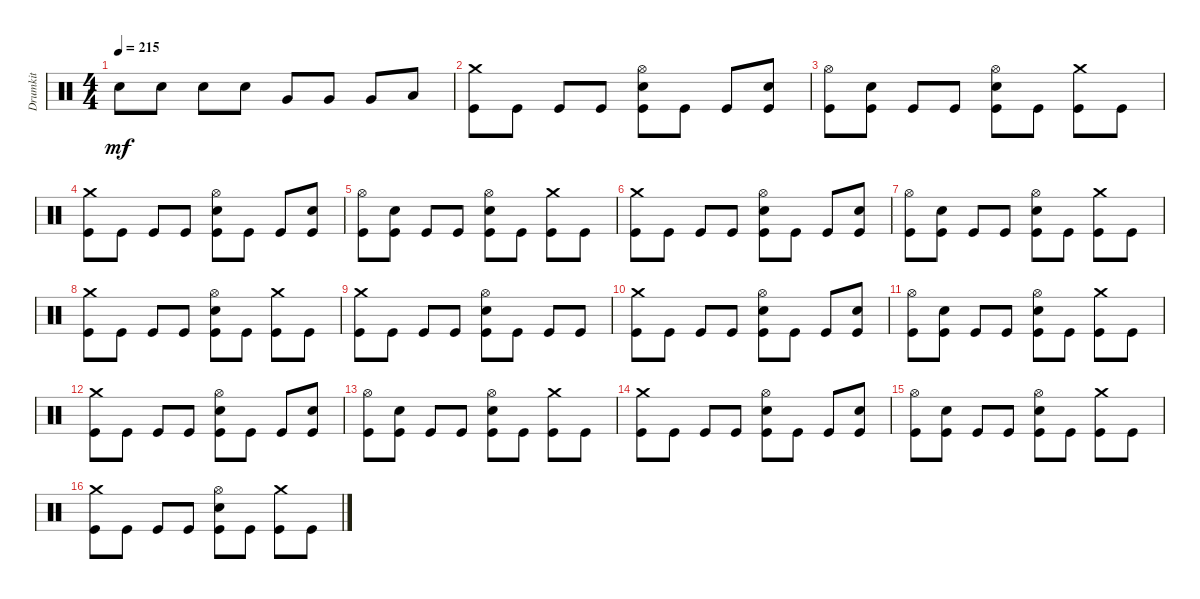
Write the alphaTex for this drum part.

\track ("Drumkit" "Drumkit") {instrument percussion}
\staff {score}
\articulation defaults
\ts (4 4)
\tempo 215
\clef neutral
\ks c "Snare (hit) 2".8{dy mf} "Snare (hit) 2".8 "Snare (hit) 2".8 "Snare (hit) 2".8 "Very Low Tom (hit)".8 "Very Low Tom (hit)".8 "Very Low Tom (hit)".8 "Low Tom (hit)".8
|
("Kick (hit)" "Crash medium (hit)").8 "Kick (hit)".8 "Kick (hit)".8 "Kick (hit)".8 ("Kick (hit)" "Snare (hit) 2" "Hi-Hat (open)").8 "Kick (hit)".8 "Kick (hit)".8 ("Kick (hit)" "Snare (hit) 2").8 |
("Kick (hit)" "Hi-Hat (open)").8 ("Kick (hit)" "Snare (hit) 2").8 "Kick (hit)".8 "Kick (hit)".8 ("Kick (hit)" "Snare (hit) 2" "Hi-Hat (open)").8 "Kick (hit)".8 ("Kick (hit)" "Crash medium (hit)").8 "Kick (hit)".8 |
("Kick (hit)" "Crash medium (hit)").8 "Kick (hit)".8 "Kick (hit)".8 "Kick (hit)".8 ("Kick (hit)" "Snare (hit) 2" "Hi-Hat (open)").8 "Kick (hit)".8 "Kick (hit)".8 ("Kick (hit)" "Snare (hit) 2").8 |
("Kick (hit)" "Hi-Hat (open)").8 ("Kick (hit)" "Snare (hit) 2").8 "Kick (hit)".8 "Kick (hit)".8 ("Kick (hit)" "Snare (hit) 2" "Hi-Hat (open)").8 "Kick (hit)".8 ("Kick (hit)" "Crash medium (hit)").8 "Kick (hit)".8 |
("Kick (hit)" "Crash medium (hit)").8 "Kick (hit)".8 "Kick (hit)".8 "Kick (hit)".8 ("Kick (hit)" "Snare (hit) 2" "Hi-Hat (open)").8 "Kick (hit)".8 "Kick (hit)".8 ("Kick (hit)" "Snare (hit) 2").8 |
("Kick (hit)" "Hi-Hat (open)").8 ("Kick (hit)" "Snare (hit) 2").8 "Kick (hit)".8 "Kick (hit)".8 ("Kick (hit)" "Snare (hit) 2" "Hi-Hat (open)").8 "Kick (hit)".8 ("Kick (hit)" "Crash medium (hit)").8 "Kick (hit)".8 |
("Kick (hit)" "Crash medium (hit)").8 "Kick (hit)".8 "Kick (hit)".8 "Kick (hit)".8 ("Kick (hit)" "Snare (hit) 2" "Hi-Hat (open)").8 "Kick (hit)".8 ("Kick (hit)" "Crash medium (hit)").8 "Kick (hit)".8 |
("Kick (hit)" "Crash medium (hit)").8 "Kick (hit)".8 "Kick (hit)".8 "Kick (hit)".8 ("Kick (hit)" "Snare (hit) 2" "Hi-Hat (open)").8 "Kick (hit)".8 "Kick (hit)".8 "Kick (hit)".8 |
("Kick (hit)" "Crash medium (hit)").8 "Kick (hit)".8 "Kick (hit)".8 "Kick (hit)".8 ("Kick (hit)" "Snare (hit) 2" "Hi-Hat (open)").8 "Kick (hit)".8 "Kick (hit)".8 ("Kick (hit)" "Snare (hit) 2").8 |
("Kick (hit)" "Hi-Hat (open)").8 ("Kick (hit)" "Snare (hit) 2").8 "Kick (hit)".8 "Kick (hit)".8 ("Kick (hit)" "Snare (hit) 2" "Hi-Hat (open)").8 "Kick (hit)".8 ("Kick (hit)" "Crash medium (hit)").8 "Kick (hit)".8 |
("Kick (hit)" "Crash medium (hit)").8 "Kick (hit)".8 "Kick (hit)".8 "Kick (hit)".8 ("Kick (hit)" "Snare (hit) 2" "Hi-Hat (open)").8 "Kick (hit)".8 "Kick (hit)".8 ("Kick (hit)" "Snare (hit) 2").8 |
("Kick (hit)" "Hi-Hat (open)").8 ("Kick (hit)" "Snare (hit) 2").8 "Kick (hit)".8 "Kick (hit)".8 ("Kick (hit)" "Snare (hit) 2" "Hi-Hat (open)").8 "Kick (hit)".8 ("Kick (hit)" "Crash medium (hit)").8 "Kick (hit)".8 |
("Kick (hit)" "Crash medium (hit)").8 "Kick (hit)".8 "Kick (hit)".8 "Kick (hit)".8 ("Kick (hit)" "Snare (hit) 2" "Hi-Hat (open)").8 "Kick (hit)".8 "Kick (hit)".8 ("Kick (hit)" "Snare (hit) 2").8 |
("Kick (hit)" "Hi-Hat (open)").8 ("Kick (hit)" "Snare (hit) 2").8 "Kick (hit)".8 "Kick (hit)".8 ("Kick (hit)" "Snare (hit) 2" "Hi-Hat (open)").8 "Kick (hit)".8 ("Kick (hit)" "Crash medium (hit)").8 "Kick (hit)".8 |
("Kick (hit)" "Crash medium (hit)").8 "Kick (hit)".8 "Kick (hit)".8 "Kick (hit)".8 ("Kick (hit)" "Snare (hit) 2" "Hi-Hat (open)").8 "Kick (hit)".8 ("Kick (hit)" "Crash medium (hit)").8 "Kick (hit)".8
